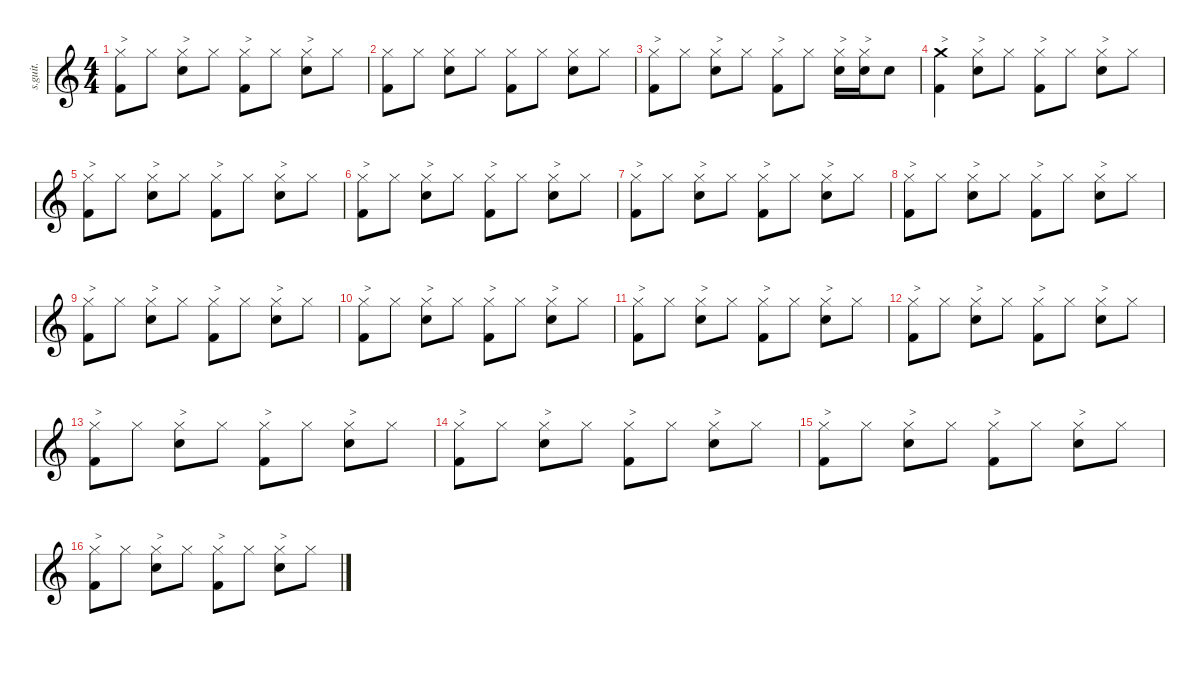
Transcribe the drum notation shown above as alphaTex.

\defaultSystemsLayout 4
\hideDynamics
\bracketExtendMode nobrackets
\track ("Chris Slade" "s.guit.") {instrument percussion}
\staff {score}
\articulation defaults
\ts (4 4)
\tempo (134 hide)
\clef g2
\ks c
("Hi-Hat (closed)" "Kick (hit) 2").8{txt ">" lyrics (0 "") lyrics (1 "") lyrics (2 "") lyrics (3 "") lyrics (4 "") dy f} "Hi-Hat (closed)".8{lyrics (0 "") lyrics (1 "") lyrics (2 "") lyrics (3 "") lyrics (4 "")} ("Hi-Hat (closed)" "Snare (hit) 2").8{txt ">" lyrics (0 "") lyrics (1 "") lyrics (2 "") lyrics (3 "") lyrics (4 "")} "Hi-Hat (closed)".8{lyrics (0 "") lyrics (1 "") lyrics (2 "") lyrics (3 "") lyrics (4 "") dy mf} ("Hi-Hat (closed)" "Kick (hit) 2").8{txt ">" lyrics (0 "") lyrics (1 "") lyrics (2 "") lyrics (3 "") lyrics (4 "") dy ff} "Hi-Hat (closed)".8{lyrics (0 "") lyrics (1 "") lyrics (2 "") lyrics (3 "") lyrics (4 "") dy mf} ("Hi-Hat (closed)" "Snare (hit) 2").8{txt ">" lyrics (0 "") lyrics (1 "") lyrics (2 "") lyrics (3 "") lyrics (4 "") dy f} "Hi-Hat (closed)".8{lyrics (0 "") lyrics (1 "") lyrics (2 "") lyrics (3 "") lyrics (4 "") dy mf} |
("Hi-Hat (closed)" "Kick (hit) 2").8{lyrics (0 "") lyrics (1 "") lyrics (2 "") lyrics (3 "") lyrics (4 "") dy ff} "Hi-Hat (closed)".8{lyrics (0 "") lyrics (1 "") lyrics (2 "") lyrics (3 "") lyrics (4 "") dy mf} ("Hi-Hat (closed)" "Snare (hit) 2").8{lyrics (0 "") lyrics (1 "") lyrics (2 "") lyrics (3 "") lyrics (4 "") dy f} "Hi-Hat (closed)".8{lyrics (0 "") lyrics (1 "") lyrics (2 "") lyrics (3 "") lyrics (4 "") dy mf} ("Hi-Hat (closed)" "Kick (hit) 2").8{lyrics (0 "") lyrics (1 "") lyrics (2 "") lyrics (3 "") lyrics (4 "") dy ff} "Hi-Hat (closed)".8{lyrics (0 "") lyrics (1 "") lyrics (2 "") lyrics (3 "") lyrics (4 "") dy mf} ("Hi-Hat (closed)" "Snare (hit) 2").8{lyrics (0 "") lyrics (1 "") lyrics (2 "") lyrics (3 "") lyrics (4 "") dy f} "Hi-Hat (closed)".8{lyrics (0 "") lyrics (1 "") lyrics (2 "") lyrics (3 "") lyrics (4 "") dy mf} |
("Hi-Hat (closed)" "Kick (hit) 2").8{txt ">" lyrics (0 "") lyrics (1 "") lyrics (2 "") lyrics (3 "") lyrics (4 "") dy f} "Hi-Hat (closed)".8{lyrics (0 "") lyrics (1 "") lyrics (2 "") lyrics (3 "") lyrics (4 "")} ("Hi-Hat (closed)" "Snare (hit) 2").8{txt ">" lyrics (0 "") lyrics (1 "") lyrics (2 "") lyrics (3 "") lyrics (4 "")} "Hi-Hat (closed)".8{lyrics (0 "") lyrics (1 "") lyrics (2 "") lyrics (3 "") lyrics (4 "") dy mf} ("Hi-Hat (closed)" "Kick (hit) 2").8{txt ">" lyrics (0 "") lyrics (1 "") lyrics (2 "") lyrics (3 "") lyrics (4 "") dy ff} "Hi-Hat (closed)".8{lyrics (0 "") lyrics (1 "") lyrics (2 "") lyrics (3 "") lyrics (4 "") dy mf} ("Hi-Hat (closed)" "Snare (hit) 2").16{txt ">" lyrics (0 "") lyrics (1 "") lyrics (2 "") lyrics (3 "") lyrics (4 "") dy f} ("Hi-Hat (closed)" "Snare (hit) 2").16{txt ">" lyrics (0 "") lyrics (1 "") lyrics (2 "") lyrics (3 "") lyrics (4 "")} "Snare (hit) 2".8{lyrics (0 "") lyrics (1 "") lyrics (2 "") lyrics (3 "") lyrics (4 "")} |
("Crash medium (hit)" "Kick (hit) 2").4{txt ">" lyrics (0 "") lyrics (1 "") lyrics (2 "") lyrics (3 "") lyrics (4 "") dy ff} ("Hi-Hat (closed)" "Snare (hit) 2").8{txt ">" lyrics (0 "") lyrics (1 "") lyrics (2 "") lyrics (3 "") lyrics (4 "") dy f} "Hi-Hat (closed)".8{lyrics (0 "") lyrics (1 "") lyrics (2 "") lyrics (3 "") lyrics (4 "") dy mf} ("Hi-Hat (closed)" "Kick (hit) 2").8{txt ">" lyrics (0 "") lyrics (1 "") lyrics (2 "") lyrics (3 "") lyrics (4 "") dy ff} "Hi-Hat (closed)".8{lyrics (0 "") lyrics (1 "") lyrics (2 "") lyrics (3 "") lyrics (4 "") dy mf} ("Hi-Hat (closed)" "Snare (hit) 2").8{txt ">" lyrics (0 "") lyrics (1 "") lyrics (2 "") lyrics (3 "") lyrics (4 "") dy f} "Hi-Hat (closed)".8{lyrics (0 "") lyrics (1 "") lyrics (2 "") lyrics (3 "") lyrics (4 "") dy mf} |
("Hi-Hat (closed)" "Kick (hit) 2").8{txt ">" lyrics (0 "") lyrics (1 "") lyrics (2 "") lyrics (3 "") lyrics (4 "") dy f} "Hi-Hat (closed)".8{lyrics (0 "") lyrics (1 "") lyrics (2 "") lyrics (3 "") lyrics (4 "")} ("Hi-Hat (closed)" "Snare (hit) 2").8{txt ">" lyrics (0 "") lyrics (1 "") lyrics (2 "") lyrics (3 "") lyrics (4 "")} "Hi-Hat (closed)".8{lyrics (0 "") lyrics (1 "") lyrics (2 "") lyrics (3 "") lyrics (4 "") dy mf} ("Hi-Hat (closed)" "Kick (hit) 2").8{txt ">" lyrics (0 "") lyrics (1 "") lyrics (2 "") lyrics (3 "") lyrics (4 "") dy ff} "Hi-Hat (closed)".8{lyrics (0 "") lyrics (1 "") lyrics (2 "") lyrics (3 "") lyrics (4 "") dy mf} ("Hi-Hat (closed)" "Snare (hit) 2").8{txt ">" lyrics (0 "") lyrics (1 "") lyrics (2 "") lyrics (3 "") lyrics (4 "") dy f} "Hi-Hat (closed)".8{lyrics (0 "") lyrics (1 "") lyrics (2 "") lyrics (3 "") lyrics (4 "") dy mf} |
("Hi-Hat (closed)" "Kick (hit) 2").8{txt ">" lyrics (0 "") lyrics (1 "") lyrics (2 "") lyrics (3 "") lyrics (4 "") dy f} "Hi-Hat (closed)".8{lyrics (0 "") lyrics (1 "") lyrics (2 "") lyrics (3 "") lyrics (4 "")} ("Hi-Hat (closed)" "Snare (hit) 2").8{txt ">" lyrics (0 "") lyrics (1 "") lyrics (2 "") lyrics (3 "") lyrics (4 "")} "Hi-Hat (closed)".8{lyrics (0 "") lyrics (1 "") lyrics (2 "") lyrics (3 "") lyrics (4 "") dy mf} ("Hi-Hat (closed)" "Kick (hit) 2").8{txt ">" lyrics (0 "") lyrics (1 "") lyrics (2 "") lyrics (3 "") lyrics (4 "") dy ff} "Hi-Hat (closed)".8{lyrics (0 "") lyrics (1 "") lyrics (2 "") lyrics (3 "") lyrics (4 "") dy mf} ("Hi-Hat (closed)" "Snare (hit) 2").8{txt ">" lyrics (0 "") lyrics (1 "") lyrics (2 "") lyrics (3 "") lyrics (4 "") dy f} "Hi-Hat (closed)".8{lyrics (0 "") lyrics (1 "") lyrics (2 "") lyrics (3 "") lyrics (4 "") dy mf} |
("Hi-Hat (closed)" "Kick (hit) 2").8{txt ">" lyrics (0 "") lyrics (1 "") lyrics (2 "") lyrics (3 "") lyrics (4 "") dy f} "Hi-Hat (closed)".8{lyrics (0 "") lyrics (1 "") lyrics (2 "") lyrics (3 "") lyrics (4 "")} ("Hi-Hat (closed)" "Snare (hit) 2").8{txt ">" lyrics (0 "") lyrics (1 "") lyrics (2 "") lyrics (3 "") lyrics (4 "")} "Hi-Hat (closed)".8{lyrics (0 "") lyrics (1 "") lyrics (2 "") lyrics (3 "") lyrics (4 "") dy mf} ("Hi-Hat (closed)" "Kick (hit) 2").8{txt ">" lyrics (0 "") lyrics (1 "") lyrics (2 "") lyrics (3 "") lyrics (4 "") dy ff} "Hi-Hat (closed)".8{lyrics (0 "") lyrics (1 "") lyrics (2 "") lyrics (3 "") lyrics (4 "") dy mf} ("Hi-Hat (closed)" "Snare (hit) 2").8{txt ">" lyrics (0 "") lyrics (1 "") lyrics (2 "") lyrics (3 "") lyrics (4 "") dy f} "Hi-Hat (closed)".8{lyrics (0 "") lyrics (1 "") lyrics (2 "") lyrics (3 "") lyrics (4 "") dy mf} |
("Hi-Hat (closed)" "Kick (hit) 2").8{txt ">" lyrics (0 "") lyrics (1 "") lyrics (2 "") lyrics (3 "") lyrics (4 "") dy f} "Hi-Hat (closed)".8{lyrics (0 "") lyrics (1 "") lyrics (2 "") lyrics (3 "") lyrics (4 "")} ("Hi-Hat (closed)" "Snare (hit) 2").8{txt ">" lyrics (0 "") lyrics (1 "") lyrics (2 "") lyrics (3 "") lyrics (4 "")} "Hi-Hat (closed)".8{lyrics (0 "") lyrics (1 "") lyrics (2 "") lyrics (3 "") lyrics (4 "") dy mf} ("Hi-Hat (closed)" "Kick (hit) 2").8{txt ">" lyrics (0 "") lyrics (1 "") lyrics (2 "") lyrics (3 "") lyrics (4 "") dy ff} "Hi-Hat (closed)".8{lyrics (0 "") lyrics (1 "") lyrics (2 "") lyrics (3 "") lyrics (4 "") dy mf} ("Hi-Hat (closed)" "Snare (hit) 2").8{txt ">" lyrics (0 "") lyrics (1 "") lyrics (2 "") lyrics (3 "") lyrics (4 "") dy f} "Hi-Hat (closed)".8{lyrics (0 "") lyrics (1 "") lyrics (2 "") lyrics (3 "") lyrics (4 "") dy mf} |
("Hi-Hat (closed)" "Kick (hit) 2").8{txt ">" lyrics (0 "") lyrics (1 "") lyrics (2 "") lyrics (3 "") lyrics (4 "") dy f} "Hi-Hat (closed)".8{lyrics (0 "") lyrics (1 "") lyrics (2 "") lyrics (3 "") lyrics (4 "")} ("Hi-Hat (closed)" "Snare (hit) 2").8{txt ">" lyrics (0 "") lyrics (1 "") lyrics (2 "") lyrics (3 "") lyrics (4 "")} "Hi-Hat (closed)".8{lyrics (0 "") lyrics (1 "") lyrics (2 "") lyrics (3 "") lyrics (4 "") dy mf} ("Hi-Hat (closed)" "Kick (hit) 2").8{txt ">" lyrics (0 "") lyrics (1 "") lyrics (2 "") lyrics (3 "") lyrics (4 "") dy ff} "Hi-Hat (closed)".8{lyrics (0 "") lyrics (1 "") lyrics (2 "") lyrics (3 "") lyrics (4 "") dy mf} ("Hi-Hat (closed)" "Snare (hit) 2").8{txt ">" lyrics (0 "") lyrics (1 "") lyrics (2 "") lyrics (3 "") lyrics (4 "") dy f} "Hi-Hat (closed)".8{lyrics (0 "") lyrics (1 "") lyrics (2 "") lyrics (3 "") lyrics (4 "") dy mf} |
("Hi-Hat (closed)" "Kick (hit) 2").8{txt ">" lyrics (0 "") lyrics (1 "") lyrics (2 "") lyrics (3 "") lyrics (4 "") dy f} "Hi-Hat (closed)".8{lyrics (0 "") lyrics (1 "") lyrics (2 "") lyrics (3 "") lyrics (4 "")} ("Hi-Hat (closed)" "Snare (hit) 2").8{txt ">" lyrics (0 "") lyrics (1 "") lyrics (2 "") lyrics (3 "") lyrics (4 "")} "Hi-Hat (closed)".8{lyrics (0 "") lyrics (1 "") lyrics (2 "") lyrics (3 "") lyrics (4 "") dy mf} ("Hi-Hat (closed)" "Kick (hit) 2").8{txt ">" lyrics (0 "") lyrics (1 "") lyrics (2 "") lyrics (3 "") lyrics (4 "") dy ff} "Hi-Hat (closed)".8{lyrics (0 "") lyrics (1 "") lyrics (2 "") lyrics (3 "") lyrics (4 "") dy mf} ("Hi-Hat (closed)" "Snare (hit) 2").8{txt ">" lyrics (0 "") lyrics (1 "") lyrics (2 "") lyrics (3 "") lyrics (4 "") dy f} "Hi-Hat (closed)".8{lyrics (0 "") lyrics (1 "") lyrics (2 "") lyrics (3 "") lyrics (4 "") dy mf} |
("Hi-Hat (closed)" "Kick (hit) 2").8{txt ">" lyrics (0 "") lyrics (1 "") lyrics (2 "") lyrics (3 "") lyrics (4 "") dy f} "Hi-Hat (closed)".8{lyrics (0 "") lyrics (1 "") lyrics (2 "") lyrics (3 "") lyrics (4 "")} ("Hi-Hat (closed)" "Snare (hit) 2").8{txt ">" lyrics (0 "") lyrics (1 "") lyrics (2 "") lyrics (3 "") lyrics (4 "")} "Hi-Hat (closed)".8{lyrics (0 "") lyrics (1 "") lyrics (2 "") lyrics (3 "") lyrics (4 "") dy mf} ("Hi-Hat (closed)" "Kick (hit) 2").8{txt ">" lyrics (0 "") lyrics (1 "") lyrics (2 "") lyrics (3 "") lyrics (4 "") dy ff} "Hi-Hat (closed)".8{lyrics (0 "") lyrics (1 "") lyrics (2 "") lyrics (3 "") lyrics (4 "") dy mf} ("Hi-Hat (closed)" "Snare (hit) 2").8{txt ">" lyrics (0 "") lyrics (1 "") lyrics (2 "") lyrics (3 "") lyrics (4 "") dy f} "Hi-Hat (closed)".8{lyrics (0 "") lyrics (1 "") lyrics (2 "") lyrics (3 "") lyrics (4 "") dy mf} |
("Hi-Hat (closed)" "Kick (hit) 2").8{txt ">" lyrics (0 "") lyrics (1 "") lyrics (2 "") lyrics (3 "") lyrics (4 "") dy f} "Hi-Hat (closed)".8{lyrics (0 "") lyrics (1 "") lyrics (2 "") lyrics (3 "") lyrics (4 "")} ("Hi-Hat (closed)" "Snare (hit) 2").8{txt ">" lyrics (0 "") lyrics (1 "") lyrics (2 "") lyrics (3 "") lyrics (4 "")} "Hi-Hat (closed)".8{lyrics (0 "") lyrics (1 "") lyrics (2 "") lyrics (3 "") lyrics (4 "") dy mf} ("Hi-Hat (closed)" "Kick (hit) 2").8{txt ">" lyrics (0 "") lyrics (1 "") lyrics (2 "") lyrics (3 "") lyrics (4 "") dy ff} "Hi-Hat (closed)".8{lyrics (0 "") lyrics (1 "") lyrics (2 "") lyrics (3 "") lyrics (4 "") dy mf} ("Hi-Hat (closed)" "Snare (hit) 2").8{txt ">" lyrics (0 "") lyrics (1 "") lyrics (2 "") lyrics (3 "") lyrics (4 "") dy f} "Hi-Hat (closed)".8{lyrics (0 "") lyrics (1 "") lyrics (2 "") lyrics (3 "") lyrics (4 "") dy mf} |
("Hi-Hat (closed)" "Kick (hit) 2").8{txt ">" lyrics (0 "") lyrics (1 "") lyrics (2 "") lyrics (3 "") lyrics (4 "") dy f} "Hi-Hat (closed)".8{lyrics (0 "") lyrics (1 "") lyrics (2 "") lyrics (3 "") lyrics (4 "")} ("Hi-Hat (closed)" "Snare (hit) 2").8{txt ">" lyrics (0 "") lyrics (1 "") lyrics (2 "") lyrics (3 "") lyrics (4 "")} "Hi-Hat (closed)".8{lyrics (0 "") lyrics (1 "") lyrics (2 "") lyrics (3 "") lyrics (4 "") dy mf} ("Hi-Hat (closed)" "Kick (hit) 2").8{txt ">" lyrics (0 "") lyrics (1 "") lyrics (2 "") lyrics (3 "") lyrics (4 "") dy ff} "Hi-Hat (closed)".8{lyrics (0 "") lyrics (1 "") lyrics (2 "") lyrics (3 "") lyrics (4 "") dy mf} ("Hi-Hat (closed)" "Snare (hit) 2").8{txt ">" lyrics (0 "") lyrics (1 "") lyrics (2 "") lyrics (3 "") lyrics (4 "") dy f} "Hi-Hat (closed)".8{lyrics (0 "") lyrics (1 "") lyrics (2 "") lyrics (3 "") lyrics (4 "") dy mf} |
("Hi-Hat (closed)" "Kick (hit) 2").8{txt ">" lyrics (0 "") lyrics (1 "") lyrics (2 "") lyrics (3 "") lyrics (4 "") dy f} "Hi-Hat (closed)".8{lyrics (0 "") lyrics (1 "") lyrics (2 "") lyrics (3 "") lyrics (4 "")} ("Hi-Hat (closed)" "Snare (hit) 2").8{txt ">" lyrics (0 "") lyrics (1 "") lyrics (2 "") lyrics (3 "") lyrics (4 "")} "Hi-Hat (closed)".8{lyrics (0 "") lyrics (1 "") lyrics (2 "") lyrics (3 "") lyrics (4 "") dy mf} ("Hi-Hat (closed)" "Kick (hit) 2").8{txt ">" lyrics (0 "") lyrics (1 "") lyrics (2 "") lyrics (3 "") lyrics (4 "") dy ff} "Hi-Hat (closed)".8{lyrics (0 "") lyrics (1 "") lyrics (2 "") lyrics (3 "") lyrics (4 "") dy mf} ("Hi-Hat (closed)" "Snare (hit) 2").8{txt ">" lyrics (0 "") lyrics (1 "") lyrics (2 "") lyrics (3 "") lyrics (4 "") dy f} "Hi-Hat (closed)".8{lyrics (0 "") lyrics (1 "") lyrics (2 "") lyrics (3 "") lyrics (4 "") dy mf} |
("Hi-Hat (closed)" "Kick (hit) 2").8{txt ">" lyrics (0 "") lyrics (1 "") lyrics (2 "") lyrics (3 "") lyrics (4 "") dy f} "Hi-Hat (closed)".8{lyrics (0 "") lyrics (1 "") lyrics (2 "") lyrics (3 "") lyrics (4 "")} ("Hi-Hat (closed)" "Snare (hit) 2").8{txt ">" lyrics (0 "") lyrics (1 "") lyrics (2 "") lyrics (3 "") lyrics (4 "")} "Hi-Hat (closed)".8{lyrics (0 "") lyrics (1 "") lyrics (2 "") lyrics (3 "") lyrics (4 "") dy mf} ("Hi-Hat (closed)" "Kick (hit) 2").8{txt ">" lyrics (0 "") lyrics (1 "") lyrics (2 "") lyrics (3 "") lyrics (4 "") dy ff} "Hi-Hat (closed)".8{lyrics (0 "") lyrics (1 "") lyrics (2 "") lyrics (3 "") lyrics (4 "") dy mf} ("Hi-Hat (closed)" "Snare (hit) 2").8{txt ">" lyrics (0 "") lyrics (1 "") lyrics (2 "") lyrics (3 "") lyrics (4 "") dy f} "Hi-Hat (closed)".8{lyrics (0 "") lyrics (1 "") lyrics (2 "") lyrics (3 "") lyrics (4 "") dy mf} |
("Hi-Hat (closed)" "Kick (hit) 2").8{txt ">" lyrics (0 "") lyrics (1 "") lyrics (2 "") lyrics (3 "") lyrics (4 "") dy f} "Hi-Hat (closed)".8{lyrics (0 "") lyrics (1 "") lyrics (2 "") lyrics (3 "") lyrics (4 "")} ("Hi-Hat (closed)" "Snare (hit) 2").8{txt ">" lyrics (0 "") lyrics (1 "") lyrics (2 "") lyrics (3 "") lyrics (4 "")} "Hi-Hat (closed)".8{lyrics (0 "") lyrics (1 "") lyrics (2 "") lyrics (3 "") lyrics (4 "") dy mf} ("Hi-Hat (closed)" "Kick (hit) 2").8{txt ">" lyrics (0 "") lyrics (1 "") lyrics (2 "") lyrics (3 "") lyrics (4 "") dy ff} "Hi-Hat (closed)".8{lyrics (0 "") lyrics (1 "") lyrics (2 "") lyrics (3 "") lyrics (4 "") dy mf} ("Hi-Hat (closed)" "Snare (hit) 2").8{txt ">" lyrics (0 "") lyrics (1 "") lyrics (2 "") lyrics (3 "") lyrics (4 "") dy f} "Hi-Hat (closed)".8{lyrics (0 "") lyrics (1 "") lyrics (2 "") lyrics (3 "") lyrics (4 "") dy mf}
